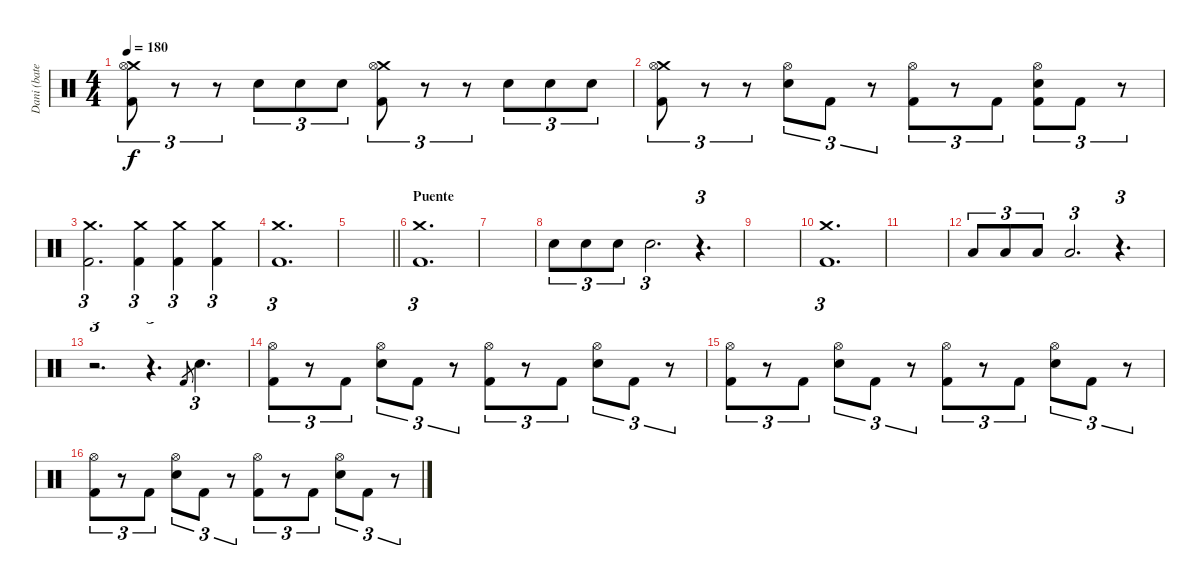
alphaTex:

\track ("Dani (bateria)" "Dani (bate") {instrument percussion}
\staff {score}
\articulation defaults
\ts (4 4)
\tempo 180
\clef neutral
\ks c
("Crash medium (hit)" "Hi-Hat (open)" "Kick (hit) 2").8{tu (3 2) dy f} r.8{tu (3 2)} r.8{tu (3 2)} "Electric Snare (hit)".8{tu (3 2)} "Electric Snare (hit)".8{tu (3 2)} "Electric Snare (hit)".8{tu (3 2)} ("Crash medium (hit)" "Hi-Hat (open)" "Kick (hit) 2").8{tu (3 2)} r.8{tu (3 2)} r.8{tu (3 2)} "Electric Snare (hit)".8{tu (3 2)} "Electric Snare (hit)".8{tu (3 2)} "Electric Snare (hit)".8{tu (3 2)} |
("Crash medium (hit)" "Hi-Hat (open)" "Kick (hit) 2").8{tu (3 2)} r.8{tu (3 2)} r.8{tu (3 2)} ("Hi-Hat (open)" "Electric Snare (hit)").8{tu (3 2)} "Kick (hit) 2".8{tu (3 2)} r.8{tu (3 2)} ("Hi-Hat (open)" "Kick (hit) 2").8{tu (3 2)} r.8{tu (3 2)} "Kick (hit) 2".8{tu (3 2)} ("Hi-Hat (open)" "Electric Snare (hit)" "Kick (hit) 2").8{tu (3 2)} "Kick (hit) 2".8{tu (3 2)} r.8{tu (3 2)} |
("Crash medium (hit)" "Kick (hit) 2").2{d tu (3 2)} ("Crash medium (hit)" "Kick (hit) 2").4{tu (3 2)} ("Crash medium (hit)" "Kick (hit) 2").4{tu (3 2)} ("Crash medium (hit)" "Kick (hit) 2").4{tu (3 2)} |
("Crash medium (hit)" "Kick (hit) 2").1{d tu (3 2)} |
\barLineRight lightlight
|
\section ("" "Puente")
("Crash medium (hit)" "Kick (hit) 2").1{d tu (3 2)} |
|
"Electric Snare (hit)".8{tu (3 2)} "Electric Snare (hit)".8{tu (3 2)} "Electric Snare (hit)".8{tu (3 2)} "Electric Snare (hit)".2{d tu (3 2)} r.4{d tu (3 2)} |
|
("Crash medium (hit)" "Kick (hit) 2").1{d tu (3 2)} |
|
"Low Tom (hit)".8{tu (3 2)} "Low Tom (hit)".8{tu (3 2)} "Low Tom (hit)".8{tu (3 2)} "Low Tom (hit)".2{d tu (3 2)} r.4{d tu (3 2)} |
r.2{d tu (3 2)} r.4{d tu (3 2)} "Kick (hit) 2".8{gr} "Electric Snare (hit)".4{d tu (3 2)} |
("Hi-Hat (open)" "Kick (hit) 2").8{tu (3 2)} r.8{tu (3 2)} "Kick (hit) 2".8{tu (3 2)} ("Hi-Hat (open)" "Electric Snare (hit)").8{tu (3 2)} "Kick (hit) 2".8{tu (3 2)} r.8{tu (3 2)} ("Hi-Hat (open)" "Kick (hit) 2").8{tu (3 2)} r.8{tu (3 2)} "Kick (hit) 2".8{tu (3 2)} ("Hi-Hat (open)" "Electric Snare (hit)").8{tu (3 2)} "Kick (hit) 2".8{tu (3 2)} r.8{tu (3 2)} |
("Hi-Hat (open)" "Kick (hit) 2").8{tu (3 2)} r.8{tu (3 2)} "Kick (hit) 2".8{tu (3 2)} ("Hi-Hat (open)" "Electric Snare (hit)").8{tu (3 2)} "Kick (hit) 2".8{tu (3 2)} r.8{tu (3 2)} ("Hi-Hat (open)" "Kick (hit) 2").8{tu (3 2)} r.8{tu (3 2)} "Kick (hit) 2".8{tu (3 2)} ("Hi-Hat (open)" "Electric Snare (hit)").8{tu (3 2)} "Kick (hit) 2".8{tu (3 2)} r.8{tu (3 2)} |
("Hi-Hat (open)" "Kick (hit) 2").8{tu (3 2)} r.8{tu (3 2)} "Kick (hit) 2".8{tu (3 2)} ("Hi-Hat (open)" "Electric Snare (hit)").8{tu (3 2)} "Kick (hit) 2".8{tu (3 2)} r.8{tu (3 2)} ("Hi-Hat (open)" "Kick (hit) 2").8{tu (3 2)} r.8{tu (3 2)} "Kick (hit) 2".8{tu (3 2)} ("Hi-Hat (open)" "Electric Snare (hit)").8{tu (3 2)} "Kick (hit) 2".8{tu (3 2)} r.8{tu (3 2)}
